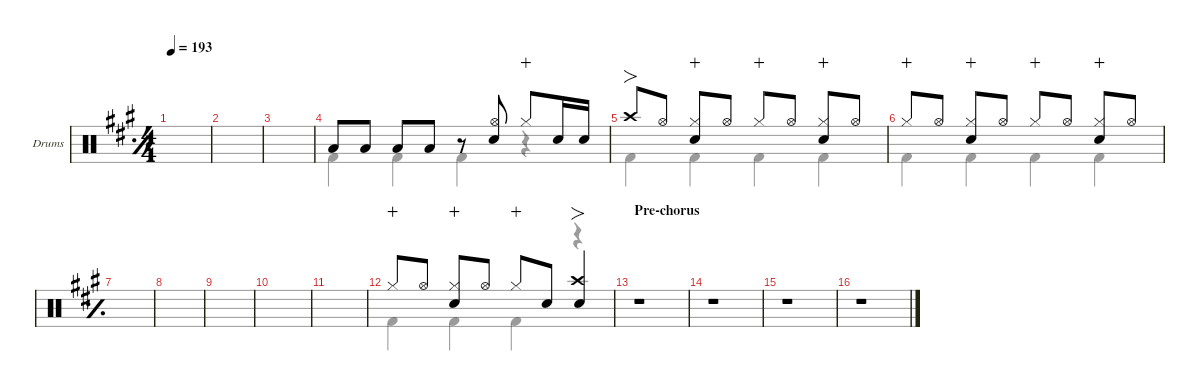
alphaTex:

\defaultSystemsLayout 4
\hideDynamics
\bracketExtendMode nobrackets
\firstSystemTrackNameOrientation horizontal
\track ("Drums" "Drums") {defaultSystemsLayout 4 instrument percussion}
\staff {score}
\articulation defaults
\voice
\ts (4 4)
\tempo 193
\clef neutral
\simile simple
\scale
0.266618
\ks a
|
\scale
0.244461 |
\scale
0.244461 |
\simile none
\scale
0.244461 "Low Tom (hit)"{acc forcenatural}.8{beam Up} "Low Tom (hit)"{acc forcenatural}.8{beam Up} "Low Tom (hit)"{acc forcenatural}.8{beam Up} "Low Tom (hit)"{acc forcenatural}.8{beam Up} r.8{beam Up} ("Snare (hit) 2"{acc forcenatural} "Hi-Hat (open)"{acc forcenatural}).8{beam Up beam split} "Hi-Hat (closed)"{acc forcenatural}.8{dy mp wahc beam Up} "Snare (hit) 2"{acc forcenatural}.16{dy f beam Up} "Snare (hit) 2"{acc forcenatural}.16{dy mf beam Up} |
\scale
0.266618 "Crash high (hit)"{acc forcenatural}.8{fo dy f beam Up} "Hi-Hat (open)"{acc forcenatural}.8{beam Up} ("Hi-Hat (closed)"{acc forcenatural} "Snare (hit) 2"{acc forcenatural}).8{wahc beam Up} "Hi-Hat (open)"{acc forcenatural}.8{beam Up} "Hi-Hat (closed)"{acc forcenatural}.8{dy mp wahc beam Up} "Hi-Hat (open)"{acc forcenatural}.8{dy f beam Up} ("Hi-Hat (closed)"{acc forcenatural} "Snare (hit) 2"{acc forcenatural}).8{wahc beam Up} "Hi-Hat (open)"{acc forcenatural}.8{beam Up} |
\scale
0.244461 "Hi-Hat (closed)"{acc forcenatural}.8{dy mp wahc beam Up} "Hi-Hat (open)"{acc forcenatural}.8{dy f beam Up} ("Hi-Hat (closed)"{acc forcenatural} "Snare (hit) 2"{acc forcenatural}).8{wahc beam Up} "Hi-Hat (open)"{acc forcenatural}.8{beam Up} "Hi-Hat (closed)"{acc forcenatural}.8{dy mp wahc beam Up} "Hi-Hat (open)"{acc forcenatural}.8{dy f beam Up} ("Hi-Hat (closed)"{acc forcenatural} "Snare (hit) 2"{acc forcenatural}).8{wahc beam Up} "Hi-Hat (open)"{acc forcenatural}.8{beam Up} |
\simile simple
\scale
0.244461 |
\scale
0.244461 |
\scale
0.266618 |
\scale
0.244461 |
\scale
0.244461 |
\simile none
\scale
0.244461 "Hi-Hat (closed)"{acc forcenatural}.8{dy mp wahc beam Up} "Hi-Hat (open)"{acc forcenatural}.8{dy f beam Up} ("Hi-Hat (closed)"{acc forcenatural} "Snare (hit) 2"{acc forcenatural}).8{wahc beam Up} "Hi-Hat (open)"{acc forcenatural}.8{beam Up} "Hi-Hat (closed)"{acc forcenatural}.8{dy mp wahc beam Up} "Snare (hit) 2"{acc forcenatural}.8{dy f beam Up} ("Snare (hit) 2"{acc forcenatural} "Crash high (hit)"{acc forcenatural}).4{fo beam Up} |
\section ("" "Pre-chorus")
\scale
0.266618 r.1{beam Up} |
\scale
0.244461 r.1{beam Up} |
\scale
0.244461 r.1{beam Up} |
\scale
0.244461 r.1{beam Up}
\voice
\clef neutral
\ottava regular
\simile simple
\scale
0.266618
\ks a
|
\scale
0.244461 |
\scale
0.244461 |
\simile none
\scale
0.244461 "Kick (hit) 2"{acc forcenatural}.4{beam Down} "Kick (hit) 2"{acc forcenatural}.4{beam Down} "Kick (hit) 2"{acc forcenatural}.4{beam Down} r.4{beam Down} |
\scale
0.266618 "Kick (hit) 2"{acc forcenatural}.4{beam Down} "Kick (hit) 2"{acc forcenatural}.4{beam Down} "Kick (hit) 2"{acc forcenatural}.4{beam Down} "Kick (hit) 2"{acc forcenatural}.4{beam Down} |
\scale
0.244461 "Kick (hit) 2"{acc forcenatural}.4{beam Down} "Kick (hit) 2"{acc forcenatural}.4{beam Down} "Kick (hit) 2"{acc forcenatural}.4{beam Down} "Kick (hit) 2"{acc forcenatural}.4{beam Down} |
\simile simple
\scale
0.244461 |
\scale
0.244461 |
\scale
0.266618 |
\scale
0.244461 |
\scale
0.244461 |
\simile none
\scale
0.244461 "Kick (hit) 2"{acc forcenatural}.4{beam Down} "Kick (hit) 2"{acc forcenatural}.4{beam Down} "Kick (hit) 2"{acc forcenatural}.4{beam Down} r.4{beam Down} |
\scale
0.266618 r.1{beam Down} |
\scale
0.244461 r.1{beam Down} |
\scale
0.244461 r.1{beam Down} |
\scale
0.244461 r.1{beam Down}
